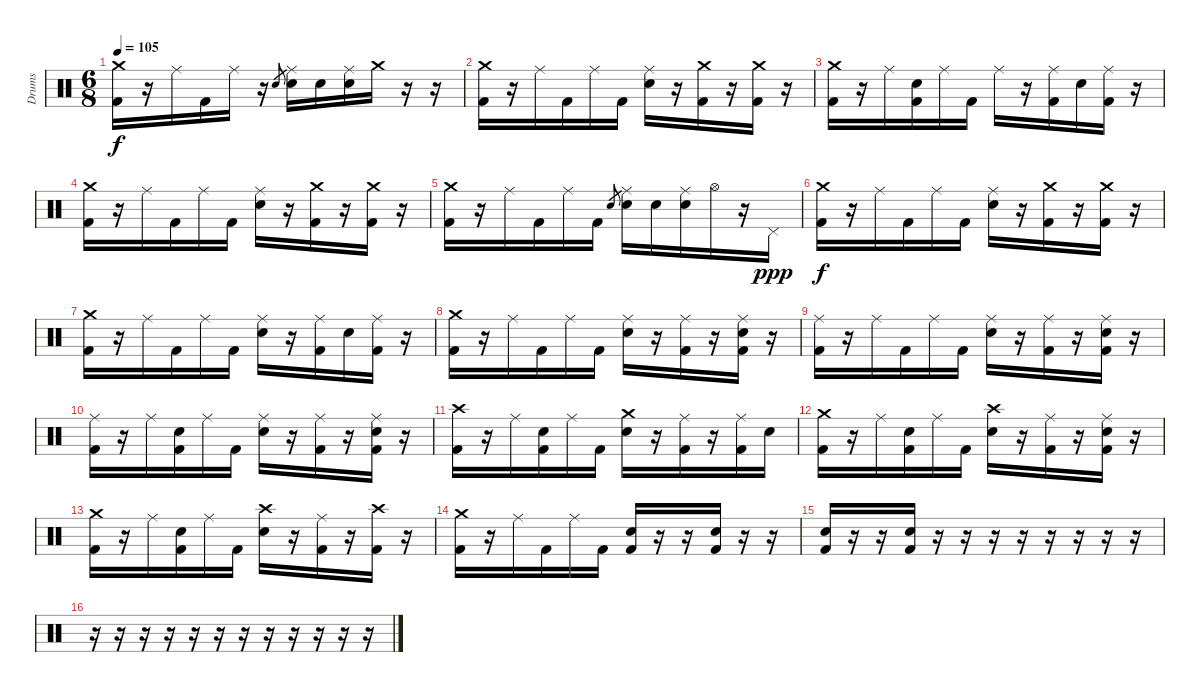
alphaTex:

\track ("Drums" "Drums") {instrument percussion}
\staff {score}
\articulation defaults
\ts (6 8)
\tempo 105
\clef neutral
\ks c
("Crash medium (hit)" "Kick (hit) 2").16{dy f} r.16 "Ride (middle)".16 "Kick (hit) 2".16 "Ride (middle)".16 r.16 "Electric Snare (hit)".8{gr} ("Ride (middle)" "Electric Snare (hit)").16 "Electric Snare (hit)".16 ("Ride (middle)" "Electric Snare (hit)").16 "Crash medium (hit)".16 r.16 r.16 |
("Crash medium (hit)" "Kick (hit) 2").16 r.16 "Ride (middle)".16 "Kick (hit) 2".16 "Ride (middle)".16 "Kick (hit) 2".16 ("Ride (middle)" "Electric Snare (hit)").16 r.16 ("Crash medium (hit)" "Kick (hit) 2").16 r.16 ("Crash medium (hit)" "Kick (hit) 2").16 r.16 |
("Crash medium (hit)" "Kick (hit) 2").16 r.16 "Ride (middle)".16 ("Electric Snare (hit)" "Kick (hit) 2").16 "Ride (middle)".16 "Kick (hit) 2".16 "Ride (middle)".16 r.16 ("Ride (middle)" "Kick (hit) 2").16 "Electric Snare (hit)".16 ("Ride (middle)" "Kick (hit) 2").16 r.16 |
("Crash medium (hit)" "Kick (hit) 2").16 r.16 "Ride (middle)".16 "Kick (hit) 2".16 "Ride (middle)".16 "Kick (hit) 2".16 ("Ride (middle)" "Electric Snare (hit)").16 r.16 ("Crash medium (hit)" "Kick (hit) 2").16 r.16 ("Crash medium (hit)" "Kick (hit) 2").16 r.16 |
("Crash medium (hit)" "Kick (hit) 2").16 r.16 "Ride (middle)".16 "Kick (hit) 2".16 "Ride (middle)".16 "Kick (hit) 2".16 "Electric Snare (hit)".8{gr} ("Ride (middle)" "Electric Snare (hit)").16 "Electric Snare (hit)".16 ("Ride (middle)" "Electric Snare (hit)").16 "Hi-Hat (open)".16 r.16 "Pedal Hi-Hat (hit)".16{dy ppp} |
("Crash medium (hit)" "Kick (hit) 2").16{dy f} r.16 "Ride (middle)".16 "Kick (hit) 2".16 "Ride (middle)".16 "Kick (hit) 2".16 ("Ride (middle)" "Electric Snare (hit)").16 r.16 ("Crash medium (hit)" "Kick (hit) 2").16 r.16 ("Crash medium (hit)" "Kick (hit) 2").16 r.16 |
("Crash medium (hit)" "Kick (hit) 2").16 r.16 "Ride (middle)".16 "Kick (hit) 2".16 "Ride (middle)".16 "Kick (hit) 2".16 ("Ride (middle)" "Electric Snare (hit)").16 r.16 ("Ride (middle)" "Kick (hit) 2").16 "Electric Snare (hit)".16 ("Ride (middle)" "Kick (hit) 2").16 r.16 |
("Crash medium (hit)" "Kick (hit) 2").16 r.16 "Ride (middle)".16 "Kick (hit) 2".16 "Ride (middle)".16 "Kick (hit) 2".16 ("Ride (middle)" "Electric Snare (hit)").16 r.16 ("Ride (middle)" "Kick (hit) 2").16 r.16 ("Ride (middle)" "Electric Snare (hit)" "Kick (hit) 2").16 r.16 |
("Ride (middle)" "Kick (hit) 2").16 r.16 "Ride (middle)".16 "Kick (hit) 2".16 "Ride (middle)".16 "Kick (hit) 2".16 ("Ride (middle)" "Electric Snare (hit)").16 r.16 ("Ride (middle)" "Kick (hit) 2").16 r.16 ("Ride (middle)" "Electric Snare (hit)" "Kick (hit) 2").16 r.16 |
("Ride (middle)" "Kick (hit) 2").16 r.16 "Ride (middle)".16 ("Electric Snare (hit)" "Kick (hit) 2").16 "Ride (middle)".16 "Kick (hit) 2".16 ("Ride (middle)" "Electric Snare (hit)").16 r.16 ("Ride (middle)" "Kick (hit) 2").16 r.16 ("Ride (middle)" "Electric Snare (hit)" "Kick (hit) 2").16 r.16 |
("Crash high (hit)" "Kick (hit) 2").16 r.16 "Ride (middle)".16 ("Electric Snare (hit)" "Kick (hit) 2").16 "Ride (middle)".16 "Kick (hit) 2".16 ("Crash medium (hit)" "Electric Snare (hit)").16 r.16 ("Ride (middle)" "Kick (hit) 2").16 r.16 ("Ride (middle)" "Kick (hit) 2").16 "Electric Snare (hit)".16 |
("Crash medium (hit)" "Kick (hit) 2").16 r.16 "Ride (middle)".16 ("Electric Snare (hit)" "Kick (hit) 2").16 "Ride (middle)".16 "Kick (hit) 2".16 ("Crash high (hit)" "Electric Snare (hit)").16 r.16 ("Ride (middle)" "Kick (hit) 2").16 r.16 ("Ride (middle)" "Electric Snare (hit)" "Kick (hit) 2").16 r.16 |
("Crash medium (hit)" "Kick (hit) 2").16 r.16 "Ride (middle)".16 ("Electric Snare (hit)" "Kick (hit) 2").16 "Ride (middle)".16 "Kick (hit) 2".16 ("Crash high (hit)" "Electric Snare (hit)").16 r.16 ("Ride (middle)" "Kick (hit) 2").16 r.16 ("Crash high (hit)" "Kick (hit) 2").16 r.16 |
("Crash medium (hit)" "Kick (hit) 2").16 r.16 "Ride (middle)".16 "Kick (hit) 2".16 "Ride (middle)".16 "Kick (hit) 2".16 ("Electric Snare (hit)" "Kick (hit) 2").16 r.16 r.16 ("Electric Snare (hit)" "Kick (hit) 2").16 r.16 r.16 |
("Electric Snare (hit)" "Kick (hit) 2").16 r.16 r.16 ("Electric Snare (hit)" "Kick (hit) 2").16 r.16 r.16 r.16 r.16 r.16 r.16 r.16 r.16 |
r.16 r.16 r.16 r.16 r.16 r.16 r.16 r.16 r.16 r.16 r.16 r.16
